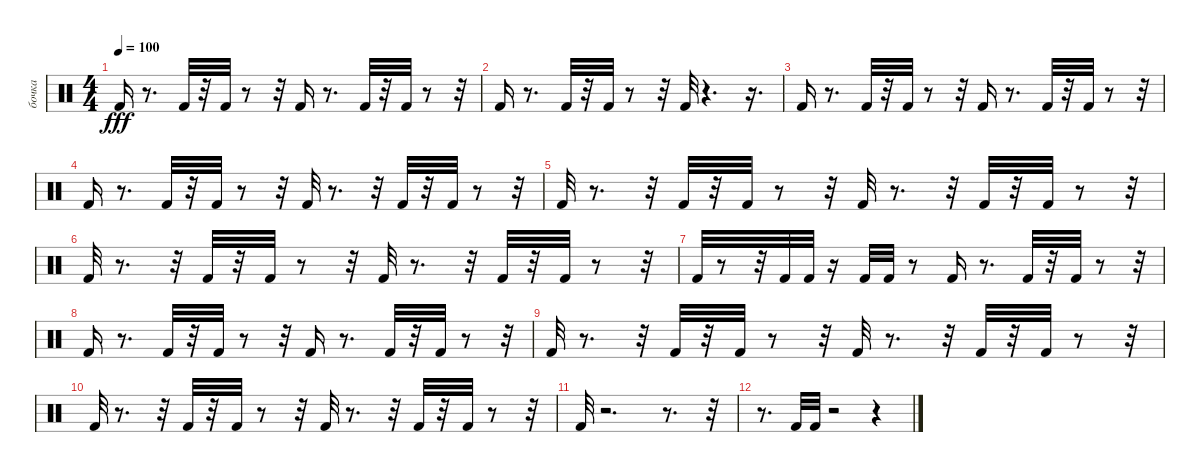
\track ("бочка" "бочка") {instrument percussion}
\staff {score}
\articulation defaults
\ts (4 4)
\tempo 100
\clef neutral
\ks c "Kick (hit) 2".16{dy fff}
r.8{d} "Kick (hit) 2".32 r.32 "Kick (hit) 2".32 r.8 r.32 "Kick (hit) 2".16 r.8{d} "Kick (hit) 2".32 r.32 "Kick (hit) 2".32 r.8 r.32 |
"Kick (hit) 2".16 r.8{d} "Kick (hit) 2".32 r.32 "Kick (hit) 2".32 r.8 r.32 "Kick (hit) 2".32 r.4{d} r.16{d} |
"Kick (hit) 2".16 r.8{d} "Kick (hit) 2".32 r.32 "Kick (hit) 2".32 r.8 r.32 "Kick (hit) 2".16 r.8{d} "Kick (hit) 2".32 r.32 "Kick (hit) 2".32 r.8 r.32 |
"Kick (hit) 2".16 r.8{d} "Kick (hit) 2".32 r.32 "Kick (hit) 2".32 r.8 r.32 "Kick (hit) 2".32 r.8{d} r.32 "Kick (hit) 2".32 r.32 "Kick (hit) 2".32 r.8 r.32 |
"Kick (hit) 2".32 r.8{d} r.32 "Kick (hit) 2".32 r.32 "Kick (hit) 2".32 r.8 r.32 "Kick (hit) 2".32 r.8{d} r.32 "Kick (hit) 2".32 r.32 "Kick (hit) 2".32 r.8 r.32 |
"Kick (hit) 2".32 r.8{d} r.32 "Kick (hit) 2".32 r.32 "Kick (hit) 2".32 r.8 r.32 "Kick (hit) 2".32 r.8{d} r.32 "Kick (hit) 2".32 r.32 "Kick (hit) 2".32 r.8 r.32 |
"Kick (hit) 2".32 r.8 r.32 "Kick (hit) 2".32 "Kick (hit) 2".32 r.16 "Kick (hit) 2".32 "Kick (hit) 2".32 r.8 "Kick (hit) 2".16 r.8{d} "Kick (hit) 2".32 r.32 "Kick (hit) 2".32 r.8 r.32 |
"Kick (hit) 2".16 r.8{d} "Kick (hit) 2".32 r.32 "Kick (hit) 2".32 r.8 r.32 "Kick (hit) 2".16 r.8{d} "Kick (hit) 2".32 r.32 "Kick (hit) 2".32 r.8 r.32 |
"Kick (hit) 2".32 r.8{d} r.32 "Kick (hit) 2".32 r.32 "Kick (hit) 2".32 r.8 r.32 "Kick (hit) 2".32 r.8{d} r.32 "Kick (hit) 2".32 r.32 "Kick (hit) 2".32 r.8 r.32 |
"Kick (hit) 2".32 r.8{d} r.32 "Kick (hit) 2".32 r.32 "Kick (hit) 2".32 r.8 r.32 "Kick (hit) 2".32 r.8{d} r.32 "Kick (hit) 2".32 r.32 "Kick (hit) 2".32 r.8 r.32 |
"Kick (hit) 2".32 r.2{d} r.8{d} r.32 |
r.8{d} "Kick (hit) 2".32 "Kick (hit) 2".32 r.2 r.4
